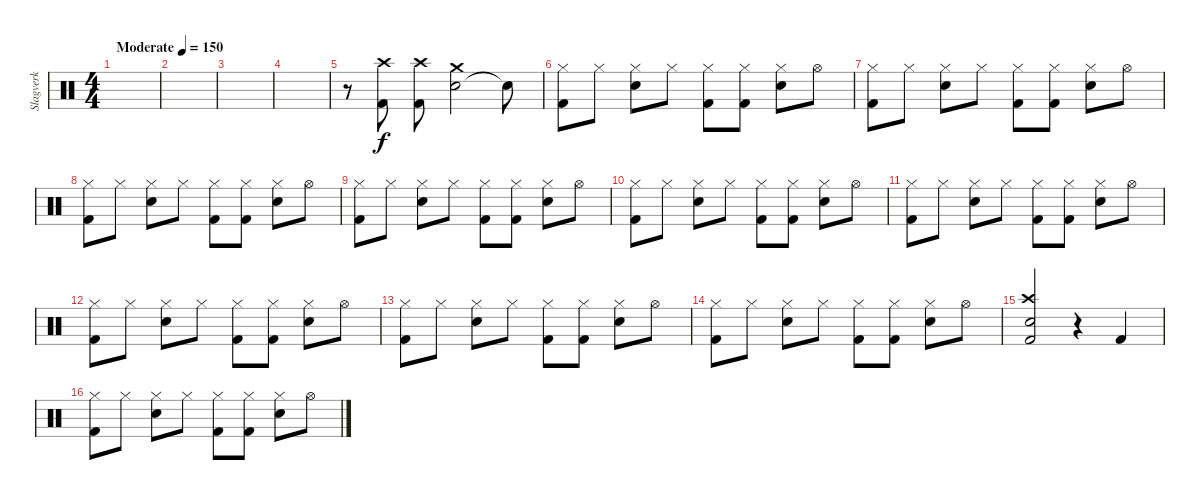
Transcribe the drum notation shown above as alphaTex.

\track ("Slagverk" "Slagverk") {instrument percussion}
\staff {score}
\articulation defaults
\ts (4 4)
\tempo (150 "Moderate")
\clef neutral
\ks c
|
|
|
|
r.8 ("Kick (hit) 2" "Crash high (hit)").8 ("Kick (hit) 2" "Crash high (hit)").8 ("Snare (hit) 2" "Crash medium (hit)").2 "Snare (hit)"{t}.8 |
("Hi-Hat (closed)" "Kick (hit) 2").8 "Hi-Hat (closed)".8 ("Hi-Hat (closed)" "Snare (hit) 2").8 "Hi-Hat (closed)".8 ("Hi-Hat (closed)" "Kick (hit) 2").8 ("Hi-Hat (closed)" "Kick (hit) 2").8 ("Hi-Hat (closed)" "Snare (hit) 2").8 "Hi-Hat (open)".8 |
("Hi-Hat (closed)" "Kick (hit) 2").8 "Hi-Hat (closed)".8 ("Hi-Hat (closed)" "Snare (hit) 2").8 "Hi-Hat (closed)".8 ("Hi-Hat (closed)" "Kick (hit) 2").8 ("Hi-Hat (closed)" "Kick (hit) 2").8 ("Hi-Hat (closed)" "Snare (hit) 2").8 "Hi-Hat (open)".8 |
("Hi-Hat (closed)" "Kick (hit) 2").8 "Hi-Hat (closed)".8 ("Hi-Hat (closed)" "Snare (hit) 2").8 "Hi-Hat (closed)".8 ("Hi-Hat (closed)" "Kick (hit) 2").8 ("Hi-Hat (closed)" "Kick (hit) 2").8 ("Hi-Hat (closed)" "Snare (hit) 2").8 "Hi-Hat (open)".8 |
("Hi-Hat (closed)" "Kick (hit) 2").8 "Hi-Hat (closed)".8 ("Hi-Hat (closed)" "Snare (hit) 2").8 "Hi-Hat (closed)".8 ("Hi-Hat (closed)" "Kick (hit) 2").8 ("Hi-Hat (closed)" "Kick (hit) 2").8 ("Hi-Hat (closed)" "Snare (hit) 2").8 "Hi-Hat (open)".8 |
("Hi-Hat (closed)" "Kick (hit) 2").8 "Hi-Hat (closed)".8 ("Hi-Hat (closed)" "Snare (hit) 2").8 "Hi-Hat (closed)".8 ("Hi-Hat (closed)" "Kick (hit) 2").8 ("Hi-Hat (closed)" "Kick (hit) 2").8 ("Hi-Hat (closed)" "Snare (hit) 2").8 "Hi-Hat (open)".8 |
("Hi-Hat (closed)" "Kick (hit) 2").8 "Hi-Hat (closed)".8 ("Hi-Hat (closed)" "Snare (hit) 2").8 "Hi-Hat (closed)".8 ("Hi-Hat (closed)" "Kick (hit) 2").8 ("Hi-Hat (closed)" "Kick (hit) 2").8 ("Hi-Hat (closed)" "Snare (hit) 2").8 "Hi-Hat (open)".8 |
("Hi-Hat (closed)" "Kick (hit) 2").8 "Hi-Hat (closed)".8 ("Hi-Hat (closed)" "Snare (hit) 2").8 "Hi-Hat (closed)".8 ("Hi-Hat (closed)" "Kick (hit) 2").8 ("Hi-Hat (closed)" "Kick (hit) 2").8 ("Hi-Hat (closed)" "Snare (hit) 2").8 "Hi-Hat (open)".8 |
("Hi-Hat (closed)" "Kick (hit) 2").8 "Hi-Hat (closed)".8 ("Hi-Hat (closed)" "Snare (hit) 2").8 "Hi-Hat (closed)".8 ("Hi-Hat (closed)" "Kick (hit) 2").8 ("Hi-Hat (closed)" "Kick (hit) 2").8 ("Hi-Hat (closed)" "Snare (hit) 2").8 "Hi-Hat (open)".8 |
("Hi-Hat (closed)" "Kick (hit) 2").8 "Hi-Hat (closed)".8 ("Hi-Hat (closed)" "Snare (hit) 2").8 "Hi-Hat (closed)".8 ("Hi-Hat (closed)" "Kick (hit) 2").8 ("Hi-Hat (closed)" "Kick (hit) 2").8 ("Hi-Hat (closed)" "Snare (hit) 2").8 "Hi-Hat (open)".8 |
("Crash high (hit)" "Kick (hit) 2" "Snare (hit) 2").2 r.4 "Kick (hit) 2".4 |
("Hi-Hat (closed)" "Kick (hit) 2").8 "Hi-Hat (closed)".8 ("Hi-Hat (closed)" "Snare (hit) 2").8 "Hi-Hat (closed)".8 ("Hi-Hat (closed)" "Kick (hit) 2").8 ("Hi-Hat (closed)" "Kick (hit) 2").8 ("Hi-Hat (closed)" "Snare (hit) 2").8 "Hi-Hat (open)".8
